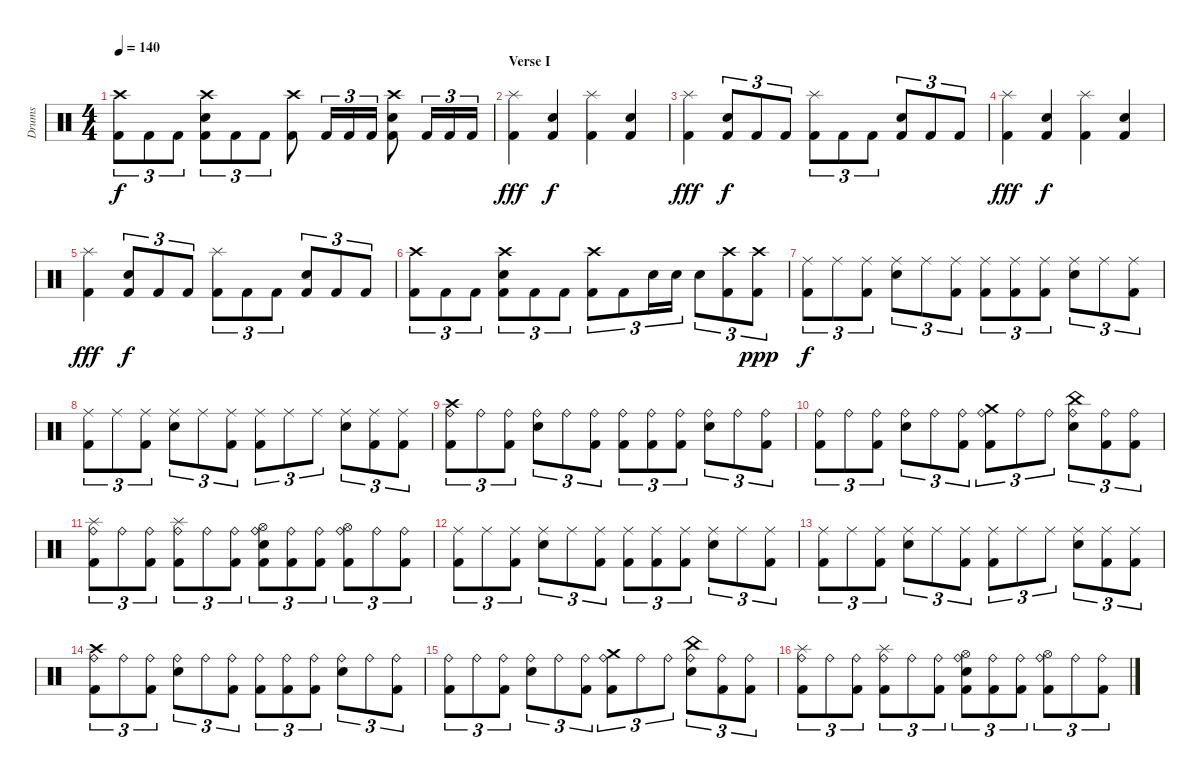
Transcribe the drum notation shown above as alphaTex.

\track ("Drums" "Drums") {instrument percussion}
\staff {score}
\articulation defaults
\ts (4 4)
\tempo 140
\clef neutral
\ks c
("Crash high (hit)" "Kick (hit) 2").8{tu (3 2) dy f} "Kick (hit) 2".8{tu (3 2)} "Kick (hit) 2".8{tu (3 2)} ("Crash high (hit)" "Electric Snare (hit)" "Kick (hit) 2").8{tu (3 2)} "Kick (hit) 2".8{tu (3 2)} "Kick (hit) 2".8{tu (3 2)} ("Crash high (hit)" "Kick (hit) 2").8 "Kick (hit) 2".16{tu (3 2)} "Kick (hit) 2".16{tu (3 2)} "Kick (hit) 2".16{tu (3 2)} ("Crash high (hit)" "Electric Snare (hit)" "Kick (hit) 2").8 "Kick (hit) 2".16{tu (3 2)} "Kick (hit) 2".16{tu (3 2)} "Kick (hit) 2".16{tu (3 2)} |
\section ("" "Verse I")
("Splash (hit)" "Kick (hit) 2").4{dy fff} ("Kick (hit) 2" "Electric Snare (hit)").4{dy f} ("Kick (hit) 2" "Splash (hit)").4 ("Kick (hit) 2" "Electric Snare (hit)").4 |
("Splash (hit)" "Kick (hit) 2").4{dy fff} ("Kick (hit) 2" "Electric Snare (hit)").8{tu (3 2) dy f} "Kick (hit) 2".8{tu (3 2)} "Kick (hit) 2".8{tu (3 2)} ("Kick (hit) 2" "Splash (hit)").8{tu (3 2)} "Kick (hit) 2".8{tu (3 2)} "Kick (hit) 2".8{tu (3 2)} ("Kick (hit) 2" "Electric Snare (hit)").8{tu (3 2)} "Kick (hit) 2".8{tu (3 2)} "Kick (hit) 2".8{tu (3 2)} |
("Splash (hit)" "Kick (hit) 2").4{dy fff} ("Kick (hit) 2" "Electric Snare (hit)").4{dy f} ("Kick (hit) 2" "Splash (hit)").4 ("Kick (hit) 2" "Electric Snare (hit)").4 |
("Splash (hit)" "Kick (hit) 2").4{dy fff} ("Kick (hit) 2" "Electric Snare (hit)").8{tu (3 2) dy f} "Kick (hit) 2".8{tu (3 2)} "Kick (hit) 2".8{tu (3 2)} ("Kick (hit) 2" "Splash (hit)").8{tu (3 2)} "Kick (hit) 2".8{tu (3 2)} "Kick (hit) 2".8{tu (3 2)} ("Kick (hit) 2" "Electric Snare (hit)").8{tu (3 2)} "Kick (hit) 2".8{tu (3 2)} "Kick (hit) 2".8{tu (3 2)} |
("Crash high (hit)" "Kick (hit) 2").8{tu (3 2)} "Kick (hit) 2".8{tu (3 2)} "Kick (hit) 2".8{tu (3 2)} ("Crash high (hit)" "Electric Snare (hit)" "Kick (hit) 2").8{tu (3 2)} "Kick (hit) 2".8{tu (3 2)} "Kick (hit) 2".8{tu (3 2)} ("Crash high (hit)" "Kick (hit) 2").8{tu (3 2)} "Kick (hit) 2".8{tu (3 2)} "Electric Snare (hit)".16{tu (3 2)} "Electric Snare (hit)".16{tu (3 2)} "Electric Snare (hit)".8{tu (3 2)} ("Kick (hit) 2" "Crash high (hit)").8{tu (3 2)} ("Kick (hit) 2" "Crash high (hit)").8{tu (3 2) dy ppp} |
("Ride (middle)" "Kick (hit) 2").8{tu (3 2) dy f} "Ride (middle)".8{tu (3 2)} ("Ride (middle)" "Kick (hit) 2").8{tu (3 2)} ("Ride (middle)" "Electric Snare (hit)").8{tu (3 2)} "Ride (middle)".8{tu (3 2)} ("Ride (middle)" "Kick (hit) 2").8{tu (3 2)} ("Ride (middle)" "Kick (hit) 2").8{tu (3 2)} ("Ride (middle)" "Kick (hit) 2").8{tu (3 2)} ("Ride (middle)" "Kick (hit) 2").8{tu (3 2)} ("Ride (middle)" "Electric Snare (hit)").8{tu (3 2)} "Ride (middle)".8{tu (3 2)} ("Ride (middle)" "Kick (hit) 2").8{tu (3 2)} |
("Ride (middle)" "Kick (hit) 2").8{tu (3 2)} "Ride (middle)".8{tu (3 2)} ("Ride (middle)" "Kick (hit) 2").8{tu (3 2)} ("Ride (middle)" "Electric Snare (hit)").8{tu (3 2)} "Ride (middle)".8{tu (3 2)} ("Ride (middle)" "Kick (hit) 2").8{tu (3 2)} ("Ride (middle)" "Kick (hit) 2").8{tu (3 2)} "Ride (middle)".8{tu (3 2)} "Ride (middle)".8{tu (3 2)} ("Ride (middle)" "Electric Snare (hit)").8{tu (3 2)} ("Ride (middle)" "Kick (hit) 2").8{tu (3 2)} ("Ride (middle)" "Kick (hit) 2").8{tu (3 2)} |
("Ride (bell)" "Kick (hit) 2" "Crash high (hit)").8{tu (3 2)} "Ride (bell)".8{tu (3 2)} ("Ride (bell)" "Kick (hit) 2").8{tu (3 2)} ("Ride (bell)" "Electric Snare (hit)").8{tu (3 2)} "Ride (bell)".8{tu (3 2)} ("Ride (bell)" "Kick (hit) 2").8{tu (3 2)} ("Ride (bell)" "Kick (hit) 2").8{tu (3 2)} ("Ride (bell)" "Kick (hit) 2").8{tu (3 2)} ("Ride (bell)" "Kick (hit) 2").8{tu (3 2)} ("Ride (bell)" "Electric Snare (hit)").8{tu (3 2)} "Ride (bell)".8{tu (3 2)} ("Ride (bell)" "Kick (hit) 2").8{tu (3 2)} |
("Ride (bell)" "Kick (hit) 2").8{tu (3 2)} "Ride (bell)".8{tu (3 2)} ("Ride (bell)" "Kick (hit) 2").8{tu (3 2)} ("Ride (bell)" "Electric Snare (hit)").8{tu (3 2)} "Ride (bell)".8{tu (3 2)} ("Ride (bell)" "Kick (hit) 2").8{tu (3 2)} ("Ride (bell)" "Crash medium (hit)" "Kick (hit) 2").8{tu (3 2)} "Ride (bell)".8{tu (3 2)} "Ride (bell)".8{tu (3 2)} ("Ride (bell)" "China (hit)" "Electric Snare (hit)").8{tu (3 2)} ("Ride (bell)" "Kick (hit) 2").8{tu (3 2)} ("Ride (bell)" "Kick (hit) 2").8{tu (3 2)} |
("Ride (bell)" "Splash (hit)" "Kick (hit) 2").8{tu (3 2)} "Ride (bell)".8{tu (3 2)} ("Ride (bell)" "Kick (hit) 2").8{tu (3 2)} ("Ride (bell)" "Splash (hit)" "Kick (hit) 2").8{tu (3 2)} "Ride (bell)".8{tu (3 2)} ("Ride (bell)" "Kick (hit) 2").8{tu (3 2)} ("Ride (bell)" "Hi-Hat (open)" "Kick (hit) 2" "Electric Snare (hit)").8{tu (3 2)} ("Ride (bell)" "Kick (hit) 2").8{tu (3 2)} ("Ride (bell)" "Kick (hit) 2").8{tu (3 2)} ("Ride (bell)" "Hi-Hat (open)" "Kick (hit) 2").8{tu (3 2)} "Ride (bell)".8{tu (3 2)} ("Ride (bell)" "Kick (hit) 2").8{tu (3 2)} |
("Ride (middle)" "Kick (hit) 2").8{tu (3 2)} "Ride (middle)".8{tu (3 2)} ("Ride (middle)" "Kick (hit) 2").8{tu (3 2)} ("Ride (middle)" "Electric Snare (hit)").8{tu (3 2)} "Ride (middle)".8{tu (3 2)} ("Ride (middle)" "Kick (hit) 2").8{tu (3 2)} ("Ride (middle)" "Kick (hit) 2").8{tu (3 2)} ("Ride (middle)" "Kick (hit) 2").8{tu (3 2)} ("Ride (middle)" "Kick (hit) 2").8{tu (3 2)} ("Ride (middle)" "Electric Snare (hit)").8{tu (3 2)} "Ride (middle)".8{tu (3 2)} ("Ride (middle)" "Kick (hit) 2").8{tu (3 2)} |
("Ride (middle)" "Kick (hit) 2").8{tu (3 2)} "Ride (middle)".8{tu (3 2)} ("Ride (middle)" "Kick (hit) 2").8{tu (3 2)} ("Ride (middle)" "Electric Snare (hit)").8{tu (3 2)} "Ride (middle)".8{tu (3 2)} ("Ride (middle)" "Kick (hit) 2").8{tu (3 2)} ("Ride (middle)" "Kick (hit) 2").8{tu (3 2)} "Ride (middle)".8{tu (3 2)} "Ride (middle)".8{tu (3 2)} ("Ride (middle)" "Electric Snare (hit)").8{tu (3 2)} ("Ride (middle)" "Kick (hit) 2").8{tu (3 2)} ("Ride (middle)" "Kick (hit) 2").8{tu (3 2)} |
("Ride (bell)" "Kick (hit) 2" "Crash high (hit)").8{tu (3 2)} "Ride (bell)".8{tu (3 2)} ("Ride (bell)" "Kick (hit) 2").8{tu (3 2)} ("Ride (bell)" "Electric Snare (hit)").8{tu (3 2)} "Ride (bell)".8{tu (3 2)} ("Ride (bell)" "Kick (hit) 2").8{tu (3 2)} ("Ride (bell)" "Kick (hit) 2").8{tu (3 2)} ("Ride (bell)" "Kick (hit) 2").8{tu (3 2)} ("Ride (bell)" "Kick (hit) 2").8{tu (3 2)} ("Ride (bell)" "Electric Snare (hit)").8{tu (3 2)} "Ride (bell)".8{tu (3 2)} ("Ride (bell)" "Kick (hit) 2").8{tu (3 2)} |
("Ride (bell)" "Kick (hit) 2").8{tu (3 2)} "Ride (bell)".8{tu (3 2)} ("Ride (bell)" "Kick (hit) 2").8{tu (3 2)} ("Ride (bell)" "Electric Snare (hit)").8{tu (3 2)} "Ride (bell)".8{tu (3 2)} ("Ride (bell)" "Kick (hit) 2").8{tu (3 2)} ("Ride (bell)" "Crash medium (hit)" "Kick (hit) 2").8{tu (3 2)} "Ride (bell)".8{tu (3 2)} "Ride (bell)".8{tu (3 2)} ("Ride (bell)" "China (hit)" "Electric Snare (hit)").8{tu (3 2)} ("Ride (bell)" "Kick (hit) 2").8{tu (3 2)} ("Ride (bell)" "Kick (hit) 2").8{tu (3 2)} |
("Ride (bell)" "Splash (hit)" "Kick (hit) 2").8{tu (3 2)} "Ride (bell)".8{tu (3 2)} ("Ride (bell)" "Kick (hit) 2").8{tu (3 2)} ("Ride (bell)" "Splash (hit)" "Kick (hit) 2").8{tu (3 2)} "Ride (bell)".8{tu (3 2)} ("Ride (bell)" "Kick (hit) 2").8{tu (3 2)} ("Ride (bell)" "Hi-Hat (open)" "Kick (hit) 2" "Electric Snare (hit)").8{tu (3 2)} ("Ride (bell)" "Kick (hit) 2").8{tu (3 2)} ("Ride (bell)" "Kick (hit) 2").8{tu (3 2)} ("Ride (bell)" "Hi-Hat (open)" "Kick (hit) 2").8{tu (3 2)} "Ride (bell)".8{tu (3 2)} ("Ride (bell)" "Kick (hit) 2").8{tu (3 2)}
